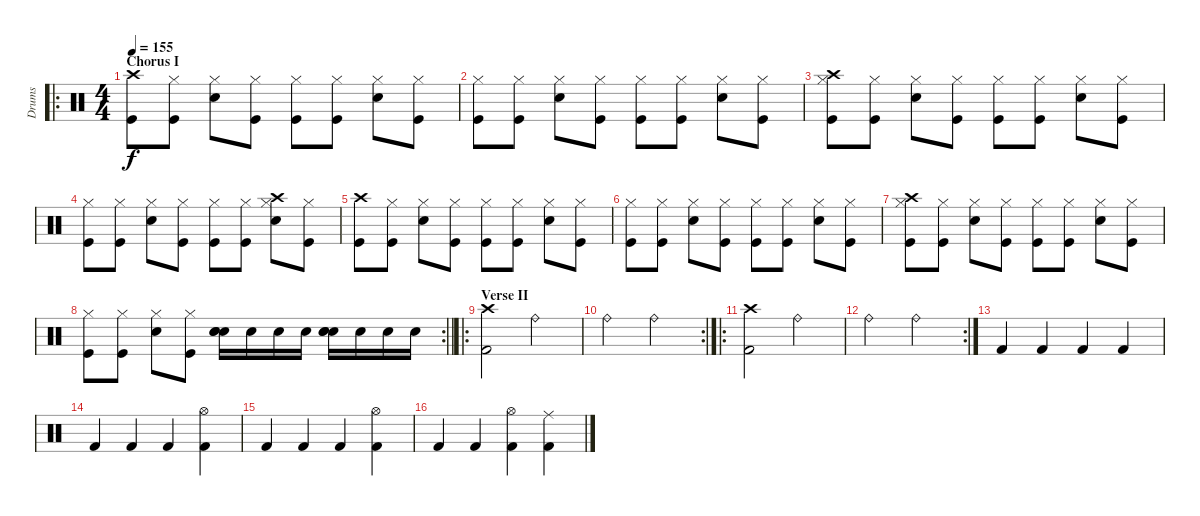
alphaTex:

\track ("Drums" "Drums") {instrument percussion}
\staff {score}
\articulation defaults
\ro
\ts (4 4)
\section ("" "Chorus I")
\tempo 155
\clef neutral
\ks c
("Crash high (hit)" "Kick (hit)").8{dy f} ("Kick (hit)" "Hi-Hat (closed)").8 ("Electric Snare (hit)" "Hi-Hat (closed)").8 ("Kick (hit)" "Hi-Hat (closed)").8 ("Kick (hit)" "Hi-Hat (closed)").8 ("Kick (hit)" "Hi-Hat (closed)").8 ("Electric Snare (hit)" "Hi-Hat (closed)").8 ("Kick (hit)" "Hi-Hat (closed)").8 |
("Kick (hit)" "Hi-Hat (closed)").8 ("Kick (hit)" "Hi-Hat (closed)").8 ("Electric Snare (hit)" "Hi-Hat (closed)").8 ("Kick (hit)" "Hi-Hat (closed)").8 ("Kick (hit)" "Hi-Hat (closed)").8 ("Kick (hit)" "Hi-Hat (closed)").8 ("Electric Snare (hit)" "Hi-Hat (closed)").8 ("Kick (hit)" "Hi-Hat (closed)").8 |
("Crash high (hit)" "Kick (hit)" "Hi-Hat (closed)").8 ("Kick (hit)" "Hi-Hat (closed)").8 ("Electric Snare (hit)" "Hi-Hat (closed)").8 ("Kick (hit)" "Hi-Hat (closed)").8 ("Kick (hit)" "Hi-Hat (closed)").8 ("Kick (hit)" "Hi-Hat (closed)").8 ("Electric Snare (hit)" "Hi-Hat (closed)").8 ("Kick (hit)" "Hi-Hat (closed)").8 |
("Kick (hit)" "Hi-Hat (closed)").8 ("Kick (hit)" "Hi-Hat (closed)").8 ("Electric Snare (hit)" "Hi-Hat (closed)").8 ("Kick (hit)" "Hi-Hat (closed)").8 ("Kick (hit)" "Hi-Hat (closed)").8 ("Kick (hit)" "Hi-Hat (closed)").8 ("Crash high (hit)" "Electric Snare (hit)" "Hi-Hat (closed)").8 ("Kick (hit)" "Hi-Hat (closed)").8 |
("Crash high (hit)" "Kick (hit)").8 ("Kick (hit)" "Hi-Hat (closed)").8 ("Electric Snare (hit)" "Hi-Hat (closed)").8 ("Kick (hit)" "Hi-Hat (closed)").8 ("Kick (hit)" "Hi-Hat (closed)").8 ("Kick (hit)" "Hi-Hat (closed)").8 ("Electric Snare (hit)" "Hi-Hat (closed)").8 ("Kick (hit)" "Hi-Hat (closed)").8 |
("Kick (hit)" "Hi-Hat (closed)").8 ("Kick (hit)" "Hi-Hat (closed)").8 ("Electric Snare (hit)" "Hi-Hat (closed)").8 ("Kick (hit)" "Hi-Hat (closed)").8 ("Kick (hit)" "Hi-Hat (closed)").8 ("Kick (hit)" "Hi-Hat (closed)").8 ("Electric Snare (hit)" "Hi-Hat (closed)").8 ("Kick (hit)" "Hi-Hat (closed)").8 |
("Crash high (hit)" "Kick (hit)" "Hi-Hat (closed)").8 ("Kick (hit)" "Hi-Hat (closed)").8 ("Electric Snare (hit)" "Hi-Hat (closed)").8 ("Kick (hit)" "Hi-Hat (closed)").8 ("Kick (hit)" "Hi-Hat (closed)").8 ("Kick (hit)" "Hi-Hat (closed)").8 ("Electric Snare (hit)" "Hi-Hat (closed)").8 ("Kick (hit)" "Hi-Hat (closed)").8 |
\rc 2
\barLineRight lightlight
("Kick (hit)" "Hi-Hat (closed)").8 ("Kick (hit)" "Hi-Hat (closed)").8 ("Electric Snare (hit)" "Hi-Hat (closed)").8 ("Kick (hit)" "Hi-Hat (closed)").8 ("Snare (hit) 2" "Electric Snare (hit)" "Electric Snare (hit)").16 "Electric Snare (hit)".16 "Electric Snare (hit)".16 "Electric Snare (hit)".16 ("Snare (hit) 2" "Electric Snare (hit)" "Electric Snare (hit)").16 "Electric Snare (hit)".16 "Electric Snare (hit)".16 "Electric Snare (hit)".16 |
\ro
\section ("" "Verse II")
("Crash high (hit)" "Kick (hit) 2").2 "Ride (bell)".2 |
\rc 2 "Ride (bell)".2 "Ride (bell)".2
|
\ro
("Crash high (hit)" "Kick (hit) 2").2 "Ride (bell)".2 |
\rc 2 "Ride (bell)".2 "Ride (bell)".2
|
"Kick (hit) 2".4 "Kick (hit) 2".4 "Kick (hit) 2".4 "Kick (hit) 2".4 |
"Kick (hit) 2".4 "Kick (hit) 2".4 "Kick (hit) 2".4 ("Hi-Hat (open)" "Kick (hit) 2").4 |
"Kick (hit) 2".4 "Kick (hit) 2".4 "Kick (hit) 2".4 ("Hi-Hat (open)" "Kick (hit) 2").4 |
"Kick (hit) 2".4 "Kick (hit) 2".4 ("Hi-Hat (open)" "Kick (hit) 2").4 ("Ride (middle)" "Kick (hit) 2").4
